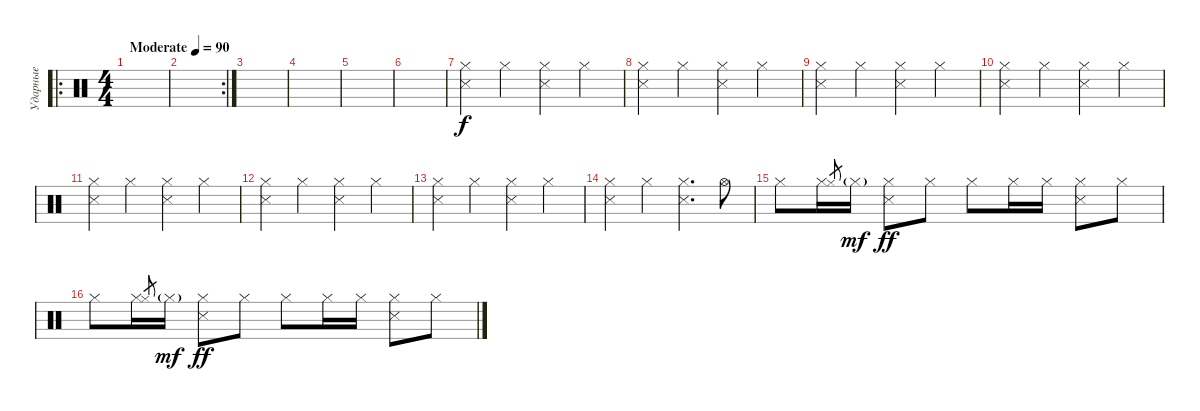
\track ("Ударные" "Ударные") {instrument percussion}
\staff {score}
\articulation defaults
\ro
\ts (4 4)
\tempo (90 "Moderate")
\clef neutral
\ks c
|
\rc 2
|
|
|
|
|
("Hi-Hat (closed)" "Snare (side stick) 3").4 "Hi-Hat (closed)".4 ("Hi-Hat (closed)" "Snare (side stick) 3").4 "Hi-Hat (closed)".4 |
("Hi-Hat (closed)" "Snare (side stick) 3").4 "Hi-Hat (closed)".4 ("Hi-Hat (closed)" "Snare (side stick) 3").4 "Hi-Hat (closed)".4 |
("Hi-Hat (closed)" "Snare (side stick) 3").4 "Hi-Hat (closed)".4 ("Hi-Hat (closed)" "Snare (side stick) 3").4 "Hi-Hat (closed)".4 |
("Hi-Hat (closed)" "Snare (side stick) 3").4 "Hi-Hat (closed)".4 ("Hi-Hat (closed)" "Snare (side stick) 3").4 "Hi-Hat (closed)".4 |
("Hi-Hat (closed)" "Snare (side stick) 3").4 "Hi-Hat (closed)".4 ("Hi-Hat (closed)" "Snare (side stick) 3").4 "Hi-Hat (closed)".4 |
("Hi-Hat (closed)" "Snare (side stick) 3").4 "Hi-Hat (closed)".4 ("Hi-Hat (closed)" "Snare (side stick) 3").4 "Hi-Hat (closed)".4 |
("Hi-Hat (closed)" "Snare (side stick) 3").4 "Hi-Hat (closed)".4 ("Hi-Hat (closed)" "Snare (side stick) 3").4 "Hi-Hat (closed)".4 |
("Hi-Hat (closed)" "Snare (side stick) 3").4 "Hi-Hat (closed)".4 ("Hi-Hat (closed)" "Snare (side stick) 3").4{d} "Hi-Hat (open)".8 |
"Hi-Hat (closed)".8 "Hi-Hat (closed)".16 "Hi-Hat (closed)".8{gr} "Hi-Hat (closed)"{g}.16{dy mf} ("Hi-Hat (closed)" "Snare (side stick) 3").8{dy ff} "Hi-Hat (closed)".8 "Hi-Hat (closed)".8 "Hi-Hat (closed)".16 "Hi-Hat (closed)".16 ("Hi-Hat (closed)" "Snare (side stick) 3").8 "Hi-Hat (closed)".8 |
"Hi-Hat (closed)".8 "Hi-Hat (closed)".16 "Hi-Hat (closed)".8{gr} "Hi-Hat (closed)"{g}.16{dy mf} ("Hi-Hat (closed)" "Snare (side stick) 3").8{dy ff} "Hi-Hat (closed)".8 "Hi-Hat (closed)".8 "Hi-Hat (closed)".16 "Hi-Hat (closed)".16 ("Hi-Hat (closed)" "Snare (side stick) 3").8 "Hi-Hat (closed)".8
